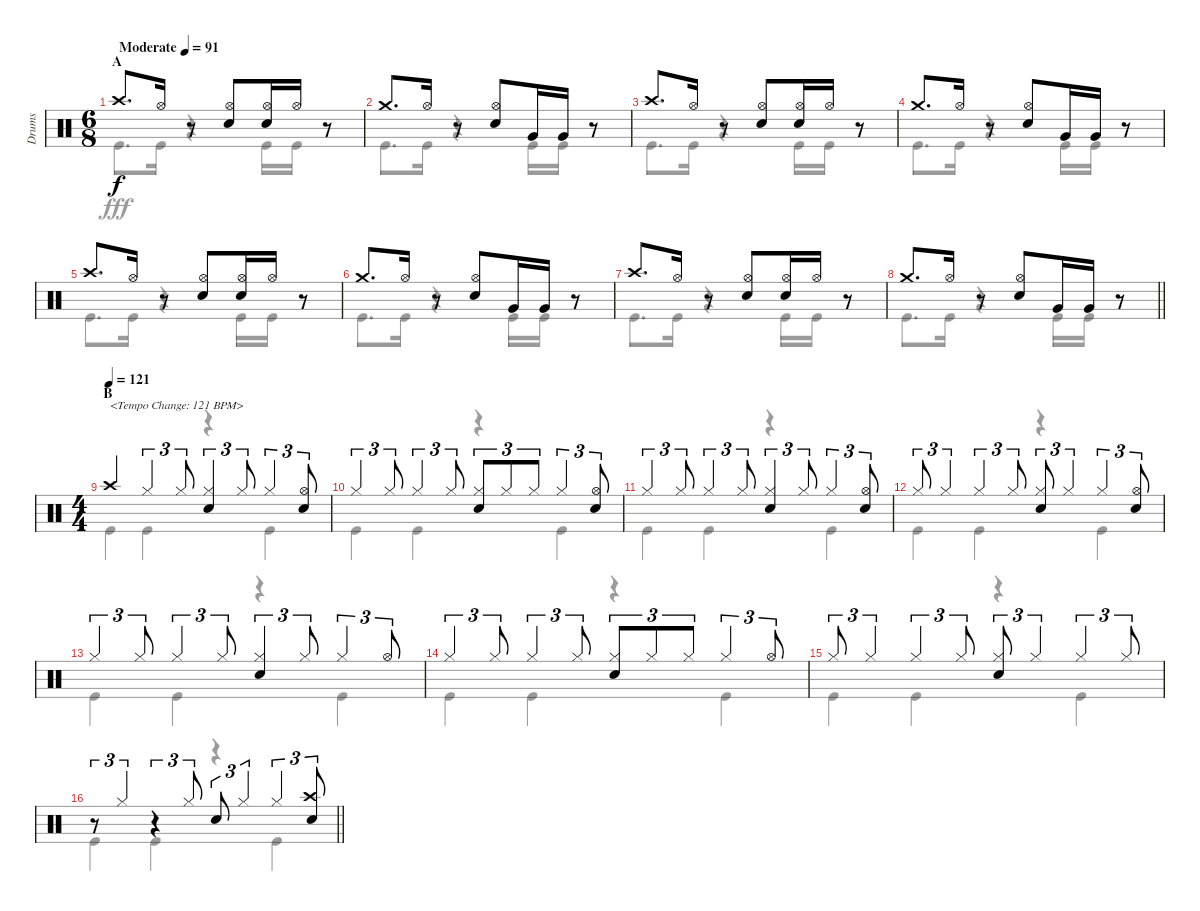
\track ("Drums" "Drums") {instrument percussion}
\staff {score}
\articulation defaults
\voice
\ts (6 8)
\section ("" "A")
\tempo (91 "Moderate")
\clef neutral
\ks c "Crash high (hit)".8{d dy f} "Hi-Hat (open)".16
r.8 ("Hi-Hat (open)" "Snare (hit) 2").8 ("Hi-Hat (open)" "Snare (hit) 2").16 "Hi-Hat (open)".16 r.8 |
"Crash medium (hit)".8{d} "Hi-Hat (open)".16 r.8 ("Hi-Hat (open)" "Snare (hit) 2").8 "Very Low Tom (hit)".16 "Very Low Tom (hit)".16 r.8 |
"Crash high (hit)".8{d} "Hi-Hat (open)".16 r.8 ("Hi-Hat (open)" "Snare (hit) 2").8 ("Hi-Hat (open)" "Snare (hit) 2").16 "Hi-Hat (open)".16 r.8 |
"Crash medium (hit)".8{d} "Hi-Hat (open)".16 r.8 ("Hi-Hat (open)" "Snare (hit) 2").8 "Very Low Tom (hit)".16 "Very Low Tom (hit)".16 r.8 |
"Crash high (hit)".8{d} "Hi-Hat (open)".16 r.8 ("Hi-Hat (open)" "Snare (hit) 2").8 ("Hi-Hat (open)" "Snare (hit) 2").16 "Hi-Hat (open)".16 r.8 |
"Crash medium (hit)".8{d} "Hi-Hat (open)".16 r.8 ("Hi-Hat (open)" "Snare (hit) 2").8 "Very Low Tom (hit)".16 "Very Low Tom (hit)".16 r.8 |
"Crash high (hit)".8{d} "Hi-Hat (open)".16 r.8 ("Hi-Hat (open)" "Snare (hit) 2").8 ("Hi-Hat (open)" "Snare (hit) 2").16 "Hi-Hat (open)".16 r.8 |
\barLineRight lightlight "Crash medium (hit)".8{d} "Hi-Hat (open)".16
r.8 ("Hi-Hat (open)" "Snare (hit) 2").8 "Very Low Tom (hit)".16 "Very Low Tom (hit)".16 r.8 |
\ts (4 4)
\section ("" "B")
\tempo (121)
"Crash high (hit)".4{txt "<Tempo Change: 121 BPM>"} "Hi-Hat (closed)".4{tu (3 2)} "Hi-Hat (closed)".8{tu (3 2)} ("Hi-Hat (closed)" "Snare (hit) 2").4{tu (3 2)} "Hi-Hat (closed)".8{tu (3 2)} "Hi-Hat (closed)".4{tu (3 2)} ("Hi-Hat (open)" "Snare (hit) 2").8{tu (3 2)} |
"Hi-Hat (closed)".4{tu (3 2)} "Hi-Hat (closed)".8{tu (3 2)} "Hi-Hat (closed)".4{tu (3 2)} "Hi-Hat (closed)".8{tu (3 2)} ("Hi-Hat (closed)" "Snare (hit) 2").8{tu (3 2)} "Hi-Hat (closed)".8{tu (3 2)} "Hi-Hat (closed)".8{tu (3 2)} "Hi-Hat (closed)".4{tu (3 2)} ("Hi-Hat (open)" "Snare (hit) 2").8{tu (3 2)} |
"Hi-Hat (closed)".4{tu (3 2)} "Hi-Hat (closed)".8{tu (3 2)} "Hi-Hat (closed)".4{tu (3 2)} "Hi-Hat (closed)".8{tu (3 2)} ("Hi-Hat (closed)" "Snare (hit) 2").4{tu (3 2)} "Hi-Hat (closed)".8{tu (3 2)} "Hi-Hat (closed)".4{tu (3 2)} ("Hi-Hat (open)" "Snare (hit) 2").8{tu (3 2)} |
"Hi-Hat (closed)".8{tu (3 2)} "Hi-Hat (closed)".4{tu (3 2)} "Hi-Hat (closed)".4{tu (3 2)} "Hi-Hat (closed)".8{tu (3 2)} ("Hi-Hat (closed)" "Snare (hit) 2").8{tu (3 2)} "Hi-Hat (closed)".4{tu (3 2)} "Hi-Hat (closed)".4{tu (3 2)} ("Hi-Hat (open)" "Snare (hit) 2").8{tu (3 2)} |
"Hi-Hat (closed)".4{tu (3 2)} "Hi-Hat (closed)".8{tu (3 2)} "Hi-Hat (closed)".4{tu (3 2)} "Hi-Hat (closed)".8{tu (3 2)} ("Hi-Hat (closed)" "Snare (hit) 2").4{tu (3 2)} "Hi-Hat (closed)".8{tu (3 2)} "Hi-Hat (closed)".4{tu (3 2)} "Hi-Hat (open)".8{tu (3 2)} |
"Hi-Hat (closed)".4{tu (3 2)} "Hi-Hat (closed)".8{tu (3 2)} "Hi-Hat (closed)".4{tu (3 2)} "Hi-Hat (closed)".8{tu (3 2)} ("Hi-Hat (closed)" "Snare (hit) 2").8{tu (3 2)} "Hi-Hat (closed)".8{tu (3 2)} "Hi-Hat (closed)".8{tu (3 2)} "Hi-Hat (closed)".4{tu (3 2)} "Hi-Hat (open)".8{tu (3 2)} |
"Hi-Hat (closed)".8{tu (3 2)} "Hi-Hat (closed)".4{tu (3 2)} "Hi-Hat (closed)".4{tu (3 2)} "Hi-Hat (closed)".8{tu (3 2)} ("Hi-Hat (closed)" "Snare (hit) 2").8{tu (3 2)} "Hi-Hat (closed)".4{tu (3 2)} "Hi-Hat (closed)".4{tu (3 2)} "Hi-Hat (closed)".8{tu (3 2)} |
\barLineRight lightlight
r.8{tu (3 2)} "Hi-Hat (closed)".4{tu (3 2)} r.4{tu (3 2)} "Hi-Hat (closed)".8{tu (3 2)} "Snare (hit) 2".8{tu (3 2)} "Hi-Hat (closed)".4{tu (3 2)} "Hi-Hat (closed)".4{tu (3 2)} ("Crash high (hit)" "Snare (hit) 2").8{tu (3 2)}
\voice
\clef neutral
\ottava regular
\simile none
\ks c "Kick (hit)".8{d dy fff} "Kick (hit)".16
r.4 "Kick (hit)".16 "Kick (hit)".16 r.8 |
"Kick (hit)".8{d} "Kick (hit)".16 r.4 "Kick (hit)".16 "Kick (hit)".16 r.8 |
"Kick (hit)".8{d} "Kick (hit)".16 r.4 "Kick (hit)".16 "Kick (hit)".16 r.8 |
"Kick (hit)".8{d} "Kick (hit)".16 r.4 "Kick (hit)".16 "Kick (hit)".16 r.8 |
"Kick (hit)".8{d} "Kick (hit)".16 r.4 "Kick (hit)".16 "Kick (hit)".16 r.8 |
"Kick (hit)".8{d} "Kick (hit)".16 r.4 "Kick (hit)".16 "Kick (hit)".16 r.8 |
"Kick (hit)".8{d} "Kick (hit)".16 r.4 "Kick (hit)".16 "Kick (hit)".16 r.8 |
\barLineRight lightlight "Kick (hit)".8{d} "Kick (hit)".16
r.4 "Kick (hit)".16 "Kick (hit)".16 r.8 |
"Kick (hit)".4 "Kick (hit)".4 r.4 "Kick (hit)".4 |
"Kick (hit)".4 "Kick (hit)".4 r.4 "Kick (hit)".4 |
"Kick (hit)".4 "Kick (hit)".4 r.4 "Kick (hit)".4 |
"Kick (hit)".4 "Kick (hit)".4 r.4 "Kick (hit)".4 |
"Kick (hit)".4 "Kick (hit)".4 r.4 "Kick (hit)".4 |
"Kick (hit)".4 "Kick (hit)".4 r.4 "Kick (hit)".4 |
"Kick (hit)".4 "Kick (hit)".4 r.4 "Kick (hit)".4 |
\barLineRight lightlight "Kick (hit)".4 "Kick (hit)".4
r.4 "Kick (hit)".4
